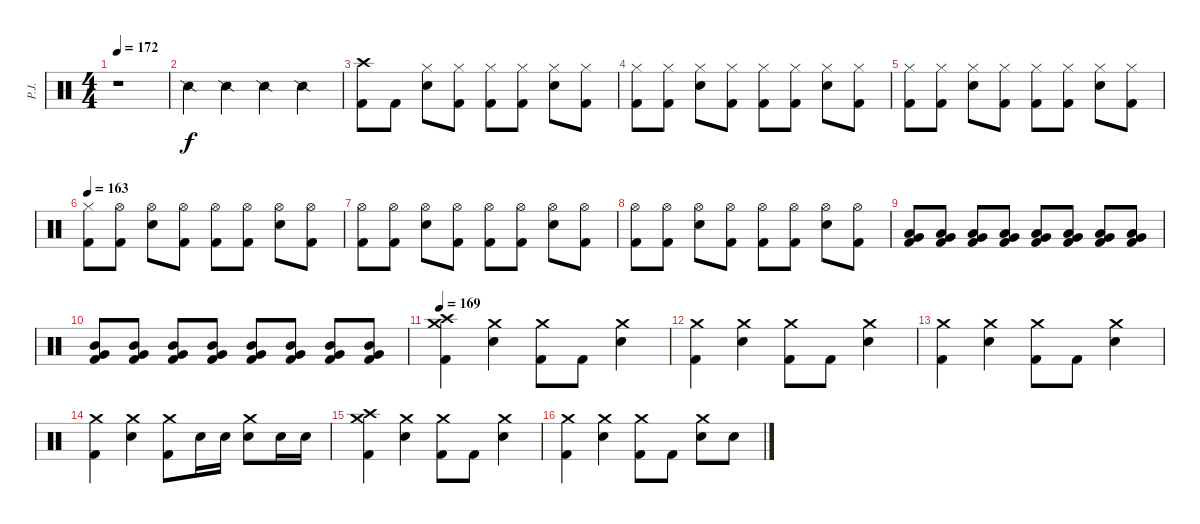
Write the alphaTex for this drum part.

\track ("P.J." "P.J.") {instrument percussion}
\staff {score}
\articulation defaults
\ts (4 4)
\tempo 172
\tempo 152
\tempo 172
\clef neutral
\ks c
r.1{dy f} |
"Snare (side stick) 2".4 "Snare (side stick) 2".4 "Snare (side stick) 2".4 "Snare (side stick) 2".4 |
("Crash high (hit)" "Kick (hit) 2").8 "Kick (hit) 2".8 ("Hi-Hat (closed)" "Electric Snare (hit)").8 ("Hi-Hat (closed)" "Kick (hit) 2").8 ("Hi-Hat (closed)" "Kick (hit) 2").8 ("Hi-Hat (closed)" "Kick (hit) 2").8 ("Hi-Hat (closed)" "Electric Snare (hit)").8 ("Hi-Hat (closed)" "Kick (hit) 2").8 |
("Hi-Hat (closed)" "Kick (hit) 2").8 ("Hi-Hat (closed)" "Kick (hit) 2").8 ("Hi-Hat (closed)" "Electric Snare (hit)").8 ("Hi-Hat (closed)" "Kick (hit) 2").8 ("Hi-Hat (closed)" "Kick (hit) 2").8 ("Hi-Hat (closed)" "Kick (hit) 2").8 ("Hi-Hat (closed)" "Electric Snare (hit)").8 ("Hi-Hat (closed)" "Kick (hit) 2").8 |
("Hi-Hat (closed)" "Kick (hit) 2").8 ("Hi-Hat (closed)" "Kick (hit) 2").8 ("Hi-Hat (closed)" "Electric Snare (hit)").8 ("Hi-Hat (closed)" "Kick (hit) 2").8 ("Hi-Hat (closed)" "Kick (hit) 2").8 ("Hi-Hat (closed)" "Kick (hit) 2").8 ("Hi-Hat (closed)" "Electric Snare (hit)").8 ("Hi-Hat (closed)" "Kick (hit) 2").8 |
\tempo 163
("Hi-Hat (closed)" "Kick (hit) 2").8 ("Hi-Hat (open)" "Kick (hit) 2").8 ("Hi-Hat (open)" "Electric Snare (hit)").8 ("Hi-Hat (open)" "Kick (hit) 2").8 ("Hi-Hat (open)" "Kick (hit) 2").8 ("Hi-Hat (open)" "Kick (hit) 2").8 ("Hi-Hat (open)" "Electric Snare (hit)").8 ("Hi-Hat (open)" "Kick (hit) 2").8 |
("Hi-Hat (open)" "Kick (hit) 2").8 ("Hi-Hat (open)" "Kick (hit) 2").8 ("Hi-Hat (open)" "Electric Snare (hit)").8 ("Hi-Hat (open)" "Kick (hit) 2").8 ("Hi-Hat (open)" "Kick (hit) 2").8 ("Hi-Hat (open)" "Kick (hit) 2").8 ("Hi-Hat (open)" "Electric Snare (hit)").8 ("Hi-Hat (open)" "Kick (hit) 2").8 |
("Hi-Hat (open)" "Kick (hit) 2").8 ("Hi-Hat (open)" "Kick (hit) 2").8 ("Hi-Hat (open)" "Electric Snare (hit)").8 ("Hi-Hat (open)" "Kick (hit) 2").8 ("Hi-Hat (open)" "Kick (hit) 2").8 ("Hi-Hat (open)" "Kick (hit) 2").8 ("Hi-Hat (open)" "Electric Snare (hit)").8 ("Hi-Hat (open)" "Kick (hit) 2").8 |
("Low Tom (hit)" "Very Low Tom (hit)" "Kick (hit) 2").8 ("Low Tom (hit)" "Very Low Tom (hit)" "Kick (hit) 2").8 ("Low Tom (hit)" "Very Low Tom (hit)" "Kick (hit) 2").8 ("Low Tom (hit)" "Very Low Tom (hit)" "Kick (hit) 2").8 ("Low Tom (hit)" "Very Low Tom (hit)" "Kick (hit) 2").8 ("Low Tom (hit)" "Very Low Tom (hit)" "Kick (hit) 2").8 ("Low Tom (hit)" "Very Low Tom (hit)" "Kick (hit) 2").8 ("Low Tom (hit)" "Very Low Tom (hit)" "Kick (hit) 2").8 |
("Mid Tom (hit)" "Very Low Tom (hit)" "Kick (hit) 2").8 ("Mid Tom (hit)" "Very Low Tom (hit)" "Kick (hit) 2").8 ("Mid Tom (hit)" "Very Low Tom (hit)" "Kick (hit) 2").8 ("Mid Tom (hit)" "Very Low Tom (hit)" "Kick (hit) 2").8 ("Mid Tom (hit)" "Very Low Tom (hit)" "Kick (hit) 2").8 ("Mid Tom (hit)" "Very Low Tom (hit)" "Kick (hit) 2").8 ("Mid Tom (hit)" "Very Low Tom (hit)" "Kick (hit) 2").8 ("Mid Tom (hit)" "Very Low Tom (hit)" "Kick (hit) 2").8 |
\tempo 169
("Crash high (hit)" "Crash medium (hit)" "Kick (hit) 2").4 ("Crash medium (hit)" "Electric Snare (hit)").4 ("Crash medium (hit)" "Kick (hit) 2").8 "Kick (hit) 2".8 ("Crash medium (hit)" "Electric Snare (hit)").4 |
("Crash medium (hit)" "Kick (hit) 2").4 ("Crash medium (hit)" "Electric Snare (hit)").4 ("Crash medium (hit)" "Kick (hit) 2").8 "Kick (hit) 2".8 ("Crash medium (hit)" "Electric Snare (hit)").4 |
("Crash medium (hit)" "Kick (hit) 2").4 ("Crash medium (hit)" "Electric Snare (hit)").4 ("Crash medium (hit)" "Kick (hit) 2").8 "Kick (hit) 2".8 ("Crash medium (hit)" "Electric Snare (hit)").4 |
("Crash medium (hit)" "Kick (hit) 2").4 ("Crash medium (hit)" "Electric Snare (hit)").4 ("Crash medium (hit)" "Kick (hit) 2").8 "Electric Snare (hit)".16 "Electric Snare (hit)".16 ("Crash medium (hit)" "Electric Snare (hit)").8 "Electric Snare (hit)".16 "Electric Snare (hit)".16 |
("Crash high (hit)" "Crash medium (hit)" "Kick (hit) 2").4 ("Crash medium (hit)" "Electric Snare (hit)").4 ("Crash medium (hit)" "Kick (hit) 2").8 "Kick (hit) 2".8 ("Crash medium (hit)" "Electric Snare (hit)").4 |
("Crash medium (hit)" "Kick (hit) 2").4 ("Crash medium (hit)" "Electric Snare (hit)").4 ("Crash medium (hit)" "Kick (hit) 2").8 "Kick (hit) 2".8 ("Crash medium (hit)" "Electric Snare (hit)").8 "Electric Snare (hit)".8
